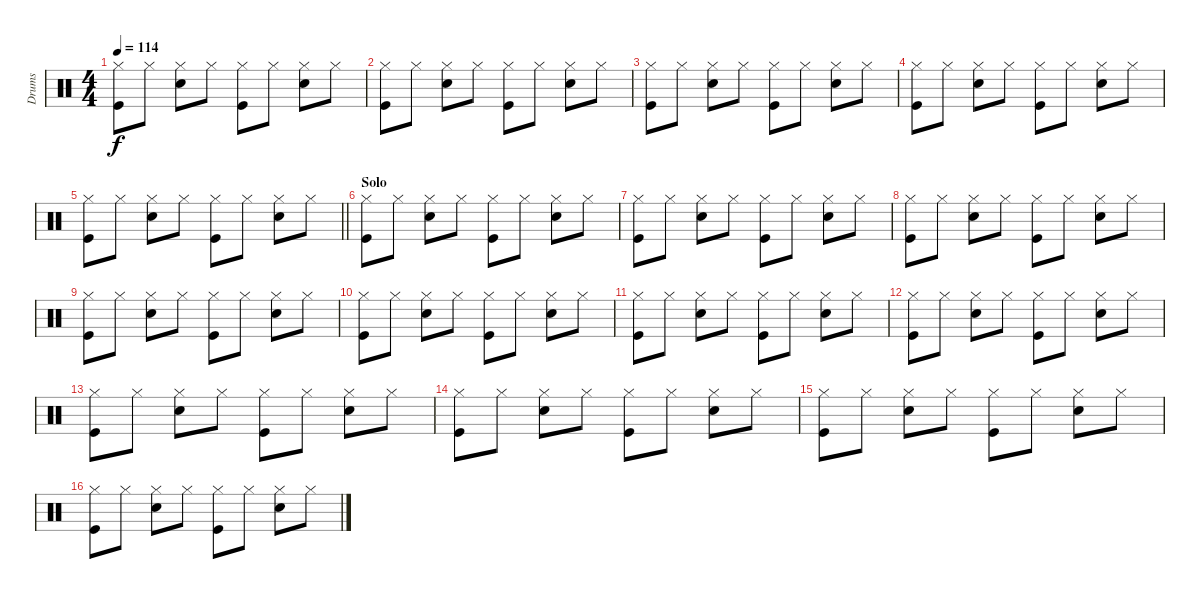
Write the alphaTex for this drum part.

\track ("Drums" "Drums") {instrument percussion}
\staff {score}
\articulation defaults
\ts (4 4)
\tempo 114
\clef neutral
\ks c
("Hi-Hat (closed)" "Kick (hit)").8{dy f} "Hi-Hat (closed)".8 ("Hi-Hat (closed)" "Snare (hit) 2").8 "Hi-Hat (closed)".8 ("Hi-Hat (closed)" "Kick (hit)").8 "Hi-Hat (closed)".8 ("Hi-Hat (closed)" "Snare (hit) 2").8 "Hi-Hat (closed)".8 |
("Hi-Hat (closed)" "Kick (hit)").8 "Hi-Hat (closed)".8 ("Hi-Hat (closed)" "Snare (hit) 2").8 "Hi-Hat (closed)".8 ("Hi-Hat (closed)" "Kick (hit)").8 "Hi-Hat (closed)".8 ("Hi-Hat (closed)" "Snare (hit) 2").8 "Hi-Hat (closed)".8 |
("Hi-Hat (closed)" "Kick (hit)").8 "Hi-Hat (closed)".8 ("Hi-Hat (closed)" "Snare (hit) 2").8 "Hi-Hat (closed)".8 ("Hi-Hat (closed)" "Kick (hit)").8 "Hi-Hat (closed)".8 ("Hi-Hat (closed)" "Snare (hit) 2").8 "Hi-Hat (closed)".8 |
("Hi-Hat (closed)" "Kick (hit)").8 "Hi-Hat (closed)".8 ("Hi-Hat (closed)" "Snare (hit) 2").8 "Hi-Hat (closed)".8 ("Hi-Hat (closed)" "Kick (hit)").8 "Hi-Hat (closed)".8 ("Hi-Hat (closed)" "Snare (hit) 2").8 "Hi-Hat (closed)".8 |
\barLineRight lightlight
("Hi-Hat (closed)" "Kick (hit)").8 "Hi-Hat (closed)".8 ("Hi-Hat (closed)" "Snare (hit) 2").8 "Hi-Hat (closed)".8 ("Hi-Hat (closed)" "Kick (hit)").8 "Hi-Hat (closed)".8 ("Hi-Hat (closed)" "Snare (hit) 2").8 "Hi-Hat (closed)".8 |
\section ("" "Solo")
("Hi-Hat (closed)" "Kick (hit)").8 "Hi-Hat (closed)".8 ("Hi-Hat (closed)" "Snare (hit) 2").8 "Hi-Hat (closed)".8 ("Hi-Hat (closed)" "Kick (hit)").8 "Hi-Hat (closed)".8 ("Hi-Hat (closed)" "Snare (hit) 2").8 "Hi-Hat (closed)".8 |
("Hi-Hat (closed)" "Kick (hit)").8 "Hi-Hat (closed)".8 ("Hi-Hat (closed)" "Snare (hit) 2").8 "Hi-Hat (closed)".8 ("Hi-Hat (closed)" "Kick (hit)").8 "Hi-Hat (closed)".8 ("Hi-Hat (closed)" "Snare (hit) 2").8 "Hi-Hat (closed)".8 |
("Hi-Hat (closed)" "Kick (hit)").8 "Hi-Hat (closed)".8 ("Hi-Hat (closed)" "Snare (hit) 2").8 "Hi-Hat (closed)".8 ("Hi-Hat (closed)" "Kick (hit)").8 "Hi-Hat (closed)".8 ("Hi-Hat (closed)" "Snare (hit) 2").8 "Hi-Hat (closed)".8 |
("Hi-Hat (closed)" "Kick (hit)").8 "Hi-Hat (closed)".8 ("Hi-Hat (closed)" "Snare (hit) 2").8 "Hi-Hat (closed)".8 ("Hi-Hat (closed)" "Kick (hit)").8 "Hi-Hat (closed)".8 ("Hi-Hat (closed)" "Snare (hit) 2").8 "Hi-Hat (closed)".8 |
("Hi-Hat (closed)" "Kick (hit)").8 "Hi-Hat (closed)".8 ("Hi-Hat (closed)" "Snare (hit) 2").8 "Hi-Hat (closed)".8 ("Hi-Hat (closed)" "Kick (hit)").8 "Hi-Hat (closed)".8 ("Hi-Hat (closed)" "Snare (hit) 2").8 "Hi-Hat (closed)".8 |
("Hi-Hat (closed)" "Kick (hit)").8 "Hi-Hat (closed)".8 ("Hi-Hat (closed)" "Snare (hit) 2").8 "Hi-Hat (closed)".8 ("Hi-Hat (closed)" "Kick (hit)").8 "Hi-Hat (closed)".8 ("Hi-Hat (closed)" "Snare (hit) 2").8 "Hi-Hat (closed)".8 |
("Hi-Hat (closed)" "Kick (hit)").8 "Hi-Hat (closed)".8 ("Hi-Hat (closed)" "Snare (hit) 2").8 "Hi-Hat (closed)".8 ("Hi-Hat (closed)" "Kick (hit)").8 "Hi-Hat (closed)".8 ("Hi-Hat (closed)" "Snare (hit) 2").8 "Hi-Hat (closed)".8 |
("Hi-Hat (closed)" "Kick (hit)").8 "Hi-Hat (closed)".8 ("Hi-Hat (closed)" "Snare (hit) 2").8 "Hi-Hat (closed)".8 ("Hi-Hat (closed)" "Kick (hit)").8 "Hi-Hat (closed)".8 ("Hi-Hat (closed)" "Snare (hit) 2").8 "Hi-Hat (closed)".8 |
("Hi-Hat (closed)" "Kick (hit)").8 "Hi-Hat (closed)".8 ("Hi-Hat (closed)" "Snare (hit) 2").8 "Hi-Hat (closed)".8 ("Hi-Hat (closed)" "Kick (hit)").8 "Hi-Hat (closed)".8 ("Hi-Hat (closed)" "Snare (hit) 2").8 "Hi-Hat (closed)".8 |
("Hi-Hat (closed)" "Kick (hit)").8 "Hi-Hat (closed)".8 ("Hi-Hat (closed)" "Snare (hit) 2").8 "Hi-Hat (closed)".8 ("Hi-Hat (closed)" "Kick (hit)").8 "Hi-Hat (closed)".8 ("Hi-Hat (closed)" "Snare (hit) 2").8 "Hi-Hat (closed)".8 |
("Hi-Hat (closed)" "Kick (hit)").8 "Hi-Hat (closed)".8 ("Hi-Hat (closed)" "Snare (hit) 2").8 "Hi-Hat (closed)".8 ("Hi-Hat (closed)" "Kick (hit)").8 "Hi-Hat (closed)".8 ("Hi-Hat (closed)" "Snare (hit) 2").8 "Hi-Hat (closed)".8
